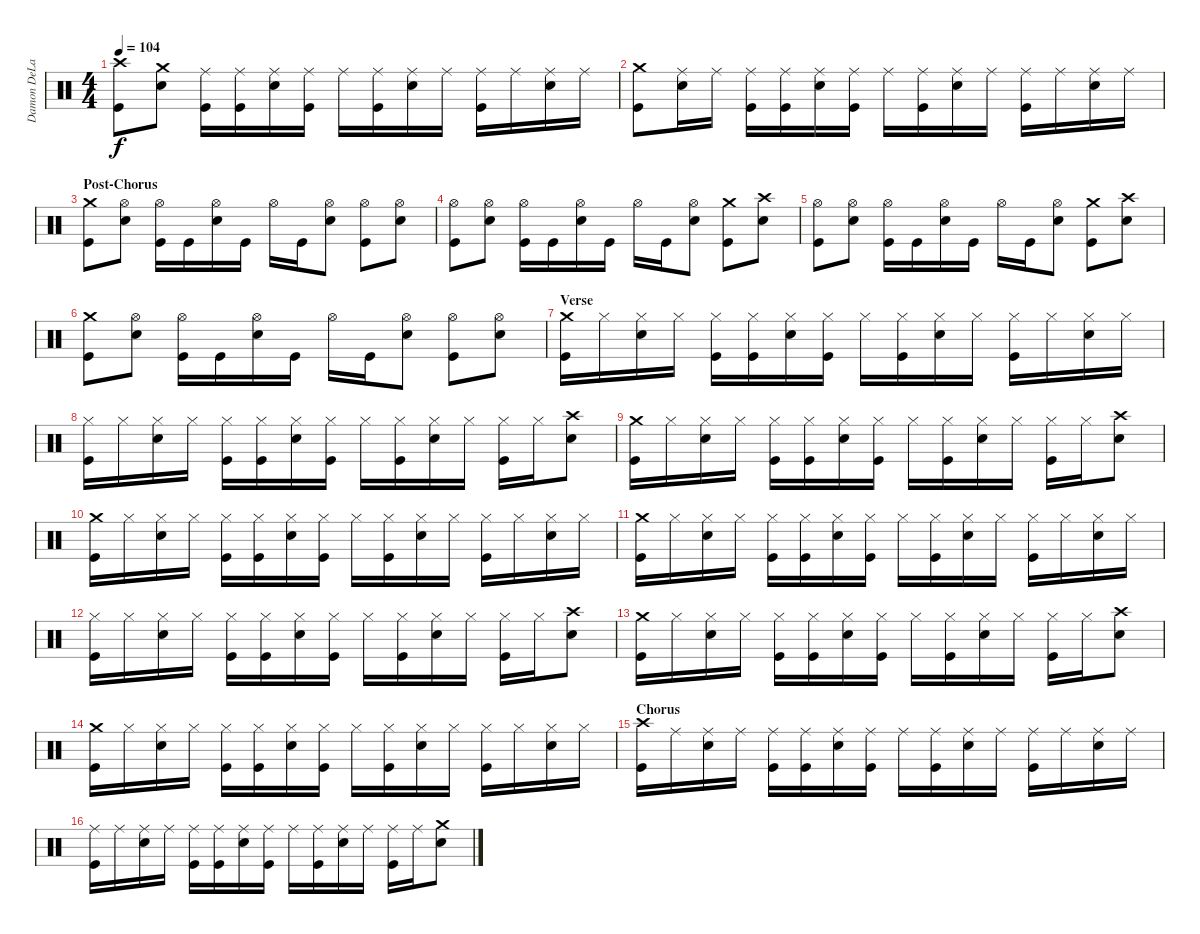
\track ("Damon DeLapaz - Drums" "Damon DeLa") {instrument percussion}
\staff {score}
\articulation defaults
\ts (4 4)
\tempo 104
\clef neutral
\ks c
("Crash high (hit)" "Kick (hit)").8{dy f} ("Crash medium (hit)" "Snare (hit) 2").8 ("Ride (middle)" "Kick (hit)").16 ("Ride (middle)" "Kick (hit)").16 ("Ride (middle)" "Snare (hit) 2").16 ("Ride (middle)" "Kick (hit)").16 "Ride (middle)".16 ("Ride (middle)" "Kick (hit)").16 ("Ride (middle)" "Snare (hit) 2").16 "Ride (middle)".16 ("Ride (middle)" "Kick (hit)").16 "Ride (middle)".16 ("Ride (middle)" "Snare (hit) 2").16 "Ride (middle)".16 |
("Crash medium (hit)" "Kick (hit)").8 ("Ride (middle)" "Snare (hit) 2").16 "Ride (middle)".16 ("Ride (middle)" "Kick (hit)").16 ("Ride (middle)" "Kick (hit)").16 ("Ride (middle)" "Snare (hit) 2").16 ("Ride (middle)" "Kick (hit)").16 "Ride (middle)".16 ("Ride (middle)" "Kick (hit)").16 ("Ride (middle)" "Snare (hit) 2").16 "Ride (middle)".16 ("Ride (middle)" "Kick (hit)").16 "Ride (middle)".16 ("Ride (middle)" "Snare (hit) 2").16 "Ride (middle)".16 |
\section ("" "Post-Chorus")
("Crash medium (hit)" "Kick (hit)").8 ("Hi-Hat (open)" "Snare (hit) 2").8 ("Hi-Hat (open)" "Kick (hit)").16 "Kick (hit)".16 ("Hi-Hat (open)" "Snare (hit) 2").16 "Kick (hit)".16 "Hi-Hat (open)".16 "Kick (hit)".16 ("Hi-Hat (open)" "Snare (hit) 2").8 ("Hi-Hat (open)" "Kick (hit)").8 ("Hi-Hat (open)" "Snare (hit) 2").8 |
("Hi-Hat (open)" "Kick (hit)").8 ("Hi-Hat (open)" "Snare (hit) 2").8 ("Hi-Hat (open)" "Kick (hit)").16 "Kick (hit)".16 ("Hi-Hat (open)" "Snare (hit) 2").16 "Kick (hit)".16 "Hi-Hat (open)".16 "Kick (hit)".16 ("Hi-Hat (open)" "Snare (hit) 2").8 ("Crash medium (hit)" "Kick (hit)").8 ("Crash high (hit)" "Snare (hit) 2").8 |
("Hi-Hat (open)" "Kick (hit)").8 ("Hi-Hat (open)" "Snare (hit) 2").8 ("Hi-Hat (open)" "Kick (hit)").16 "Kick (hit)".16 ("Hi-Hat (open)" "Snare (hit) 2").16 "Kick (hit)".16 "Hi-Hat (open)".16 "Kick (hit)".16 ("Hi-Hat (open)" "Snare (hit) 2").8 ("Crash medium (hit)" "Kick (hit)").8 ("Crash high (hit)" "Snare (hit) 2").8 |
("Crash medium (hit)" "Kick (hit)").8 ("Hi-Hat (open)" "Snare (hit) 2").8 ("Hi-Hat (open)" "Kick (hit)").16 "Kick (hit)".16 ("Hi-Hat (open)" "Snare (hit) 2").16 "Kick (hit)".16 "Hi-Hat (open)".16 "Kick (hit)".16 ("Hi-Hat (open)" "Snare (hit) 2").8 ("Hi-Hat (open)" "Kick (hit)").8 ("Hi-Hat (open)" "Snare (hit) 2").8 |
\section ("" "Verse")
("Crash medium (hit)" "Kick (hit)").16 "Hi-Hat (closed)".16 ("Hi-Hat (closed)" "Snare (hit) 2").16 "Hi-Hat (closed)".16 ("Hi-Hat (closed)" "Kick (hit)").16 ("Hi-Hat (closed)" "Kick (hit)").16 ("Hi-Hat (closed)" "Snare (hit) 2").16 ("Hi-Hat (closed)" "Kick (hit)").16 "Hi-Hat (closed)".16 ("Hi-Hat (closed)" "Kick (hit)").16 ("Hi-Hat (closed)" "Snare (hit) 2").16 "Hi-Hat (closed)".16 ("Hi-Hat (closed)" "Kick (hit)").16 "Hi-Hat (closed)".16 ("Hi-Hat (closed)" "Snare (hit) 2").16 "Hi-Hat (closed)".16 |
("Hi-Hat (closed)" "Kick (hit)").16 "Hi-Hat (closed)".16 ("Hi-Hat (closed)" "Snare (hit) 2").16 "Hi-Hat (closed)".16 ("Hi-Hat (closed)" "Kick (hit)").16 ("Hi-Hat (closed)" "Kick (hit)").16 ("Hi-Hat (closed)" "Snare (hit) 2").16 ("Hi-Hat (closed)" "Kick (hit)").16 "Hi-Hat (closed)".16 ("Hi-Hat (closed)" "Kick (hit)").16 ("Hi-Hat (closed)" "Snare (hit) 2").16 "Hi-Hat (closed)".16 ("Hi-Hat (closed)" "Kick (hit)").16 "Hi-Hat (closed)".16 ("Crash high (hit)" "Snare (hit) 2").8 |
("Crash medium (hit)" "Kick (hit)").16 "Hi-Hat (closed)".16 ("Hi-Hat (closed)" "Snare (hit) 2").16 "Hi-Hat (closed)".16 ("Hi-Hat (closed)" "Kick (hit)").16 ("Hi-Hat (closed)" "Kick (hit)").16 ("Hi-Hat (closed)" "Snare (hit) 2").16 ("Hi-Hat (closed)" "Kick (hit)").16 "Hi-Hat (closed)".16 ("Hi-Hat (closed)" "Kick (hit)").16 ("Hi-Hat (closed)" "Snare (hit) 2").16 "Hi-Hat (closed)".16 ("Hi-Hat (closed)" "Kick (hit)").16 "Hi-Hat (closed)".16 ("Crash high (hit)" "Snare (hit) 2").8 |
("Crash medium (hit)" "Kick (hit)").16 "Hi-Hat (closed)".16 ("Hi-Hat (closed)" "Snare (hit) 2").16 "Hi-Hat (closed)".16 ("Hi-Hat (closed)" "Kick (hit)").16 ("Hi-Hat (closed)" "Kick (hit)").16 ("Hi-Hat (closed)" "Snare (hit) 2").16 ("Hi-Hat (closed)" "Kick (hit)").16 "Hi-Hat (closed)".16 ("Hi-Hat (closed)" "Kick (hit)").16 ("Hi-Hat (closed)" "Snare (hit) 2").16 "Hi-Hat (closed)".16 ("Hi-Hat (closed)" "Kick (hit)").16 "Hi-Hat (closed)".16 ("Hi-Hat (closed)" "Snare (hit) 2").16 "Hi-Hat (closed)".16 |
("Crash medium (hit)" "Kick (hit)").16 "Hi-Hat (closed)".16 ("Hi-Hat (closed)" "Snare (hit) 2").16 "Hi-Hat (closed)".16 ("Hi-Hat (closed)" "Kick (hit)").16 ("Hi-Hat (closed)" "Kick (hit)").16 ("Hi-Hat (closed)" "Snare (hit) 2").16 ("Hi-Hat (closed)" "Kick (hit)").16 "Hi-Hat (closed)".16 ("Hi-Hat (closed)" "Kick (hit)").16 ("Hi-Hat (closed)" "Snare (hit) 2").16 "Hi-Hat (closed)".16 ("Hi-Hat (closed)" "Kick (hit)").16 "Hi-Hat (closed)".16 ("Hi-Hat (closed)" "Snare (hit) 2").16 "Hi-Hat (closed)".16 |
("Hi-Hat (closed)" "Kick (hit)").16 "Hi-Hat (closed)".16 ("Hi-Hat (closed)" "Snare (hit) 2").16 "Hi-Hat (closed)".16 ("Hi-Hat (closed)" "Kick (hit)").16 ("Hi-Hat (closed)" "Kick (hit)").16 ("Hi-Hat (closed)" "Snare (hit) 2").16 ("Hi-Hat (closed)" "Kick (hit)").16 "Hi-Hat (closed)".16 ("Hi-Hat (closed)" "Kick (hit)").16 ("Hi-Hat (closed)" "Snare (hit) 2").16 "Hi-Hat (closed)".16 ("Hi-Hat (closed)" "Kick (hit)").16 "Hi-Hat (closed)".16 ("Crash high (hit)" "Snare (hit) 2").8 |
("Crash medium (hit)" "Kick (hit)").16 "Hi-Hat (closed)".16 ("Hi-Hat (closed)" "Snare (hit) 2").16 "Hi-Hat (closed)".16 ("Hi-Hat (closed)" "Kick (hit)").16 ("Hi-Hat (closed)" "Kick (hit)").16 ("Hi-Hat (closed)" "Snare (hit) 2").16 ("Hi-Hat (closed)" "Kick (hit)").16 "Hi-Hat (closed)".16 ("Hi-Hat (closed)" "Kick (hit)").16 ("Hi-Hat (closed)" "Snare (hit) 2").16 "Hi-Hat (closed)".16 ("Hi-Hat (closed)" "Kick (hit)").16 "Hi-Hat (closed)".16 ("Crash high (hit)" "Snare (hit) 2").8 |
("Crash medium (hit)" "Kick (hit)").16 "Hi-Hat (closed)".16 ("Hi-Hat (closed)" "Snare (hit) 2").16 "Hi-Hat (closed)".16 ("Hi-Hat (closed)" "Kick (hit)").16 ("Hi-Hat (closed)" "Kick (hit)").16 ("Hi-Hat (closed)" "Snare (hit) 2").16 ("Hi-Hat (closed)" "Kick (hit)").16 "Hi-Hat (closed)".16 ("Hi-Hat (closed)" "Kick (hit)").16 ("Hi-Hat (closed)" "Snare (hit) 2").16 "Hi-Hat (closed)".16 ("Hi-Hat (closed)" "Kick (hit)").16 "Hi-Hat (closed)".16 ("Hi-Hat (closed)" "Snare (hit) 2").16 "Hi-Hat (closed)".16 |
\section ("" "Chorus")
("Crash high (hit)" "Kick (hit)").16 "Ride (middle)".16 ("Ride (middle)" "Snare (hit) 2").16 "Ride (middle)".16 ("Ride (middle)" "Kick (hit)").16 ("Ride (middle)" "Kick (hit)").16 ("Ride (middle)" "Snare (hit) 2").16 ("Ride (middle)" "Kick (hit)").16 "Ride (middle)".16 ("Ride (middle)" "Kick (hit)").16 ("Ride (middle)" "Snare (hit) 2").16 "Ride (middle)".16 ("Ride (middle)" "Kick (hit)").16 "Ride (middle)".16 ("Ride (middle)" "Snare (hit) 2").16 "Ride (middle)".16 |
("Ride (middle)" "Kick (hit)").16 "Ride (middle)".16 ("Ride (middle)" "Snare (hit) 2").16 "Ride (middle)".16 ("Ride (middle)" "Kick (hit)").16 ("Ride (middle)" "Kick (hit)").16 ("Ride (middle)" "Snare (hit) 2").16 ("Ride (middle)" "Kick (hit)").16 "Ride (middle)".16 ("Ride (middle)" "Kick (hit)").16 ("Ride (middle)" "Snare (hit) 2").16 "Ride (middle)".16 ("Ride (middle)" "Kick (hit)").16 "Ride (middle)".16 ("Crash medium (hit)" "Snare (hit) 2").8
